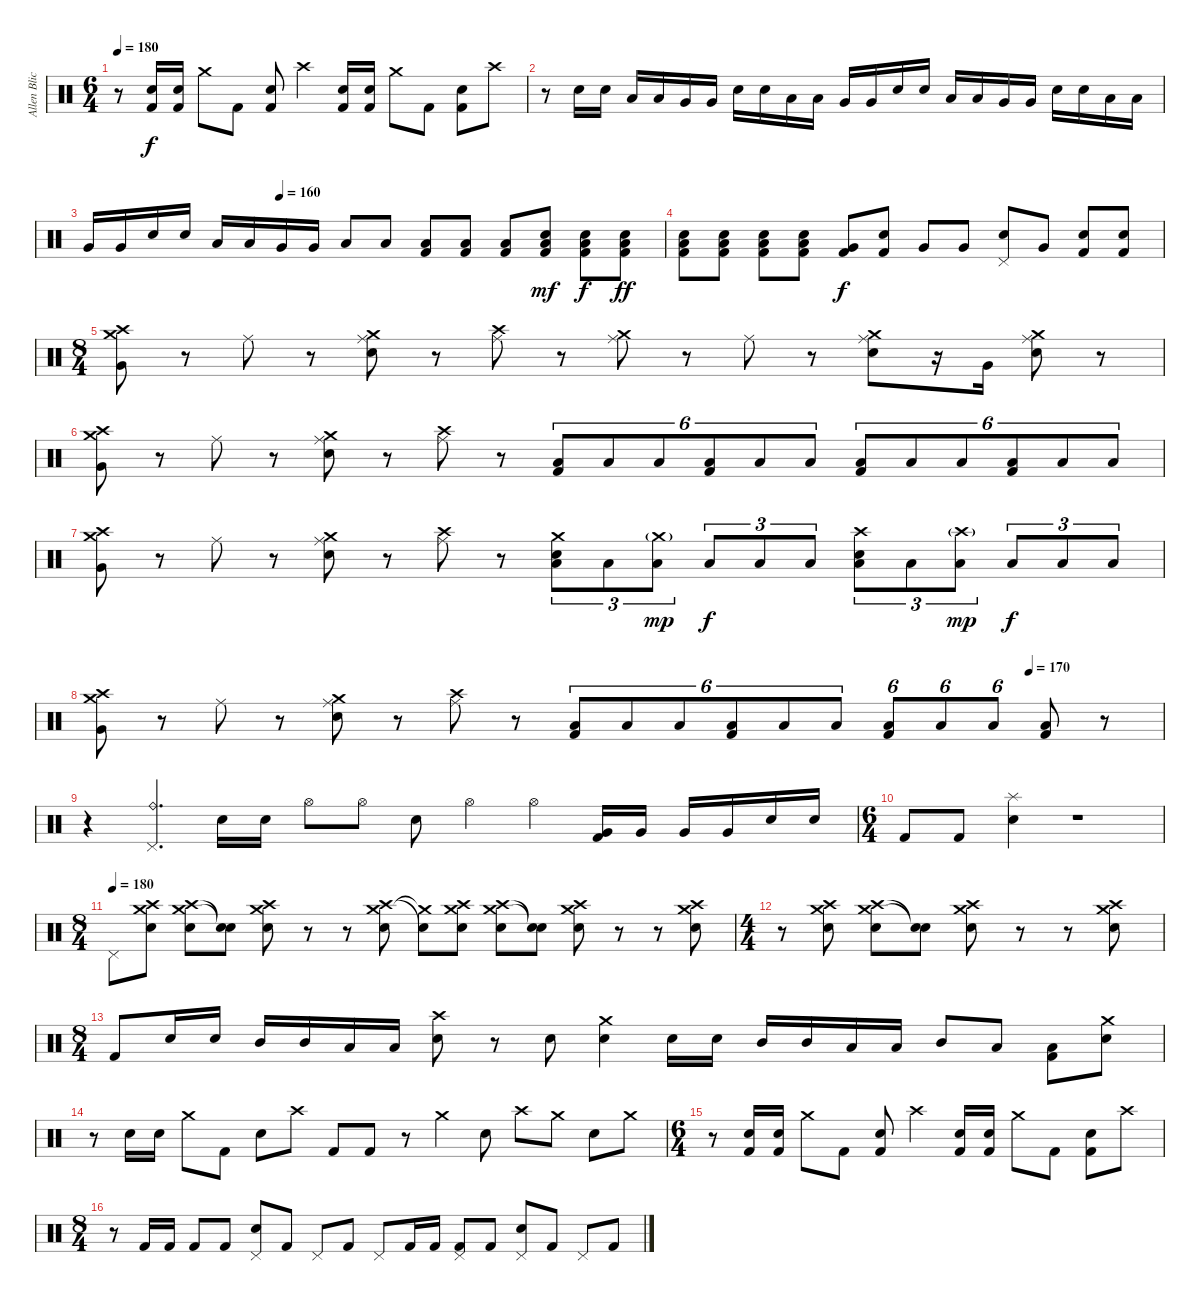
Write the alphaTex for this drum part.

\track ("Allen Blickle" "Allen Blic") {instrument percussion}
\staff {score}
\articulation defaults
\ts (6 4)
\tempo 180
\clef neutral
\ks c
r.8{dy f} ("Electric Snare (hit)" "Kick (hit) 2").16 ("Electric Snare (hit)" "Kick (hit) 2").16 "Crash medium (hit)".8 "Kick (hit) 2".8 ("Electric Snare (hit)" "Kick (hit) 2").8 "Crash high (hit)".4 ("Electric Snare (hit)" "Kick (hit) 2").16 ("Electric Snare (hit)" "Kick (hit) 2").16 "Crash medium (hit)".8 "Kick (hit) 2".8 ("Electric Snare (hit)" "Kick (hit) 2").8 "Crash high (hit)".8 |
r.8 "Electric Snare (hit)".16 "Electric Snare (hit)".16 "Low Tom (hit)".16 "Low Tom (hit)".16 "Very Low Tom (hit)".16 "Very Low Tom (hit)".16 "Electric Snare (hit)".16 "Electric Snare (hit)".16 "Low Tom (hit)".16 "Low Tom (hit)".16 "Very Low Tom (hit)".16 "Very Low Tom (hit)".16 "Electric Snare (hit)".16 "Electric Snare (hit)".16 "Low Tom (hit)".16 "Low Tom (hit)".16 "Very Low Tom (hit)".16 "Very Low Tom (hit)".16 "Electric Snare (hit)".16 "Electric Snare (hit)".16 "Low Tom (hit)".16 "Low Tom (hit)".16 |
\tempo (160 0.3333333333333333)
"Very Low Tom (hit)".16 "Very Low Tom (hit)".16 "Electric Snare (hit)".16 "Electric Snare (hit)".16 "Low Tom (hit)".16 "Low Tom (hit)".16 "Very Low Tom (hit)".16 "Very Low Tom (hit)".16 "Low Tom (hit)".8 "Low Tom (hit)".8 ("Low Tom (hit)" "Kick (hit) 2").8 ("Low Tom (hit)" "Kick (hit) 2").8 ("Low Tom (hit)" "Kick (hit) 2").8 ("Low Tom (hit)" "Electric Snare (hit)" "Kick (hit) 2").8{dy mf} ("Low Tom (hit)" "Electric Snare (hit)" "Kick (hit) 2").8{dy f} ("Low Tom (hit)" "Electric Snare (hit)" "Kick (hit) 2").8{dy ff} |
("Low Tom (hit)" "Electric Snare (hit)" "Kick (hit) 2").8 ("Low Tom (hit)" "Electric Snare (hit)" "Kick (hit) 2").8 ("Low Tom (hit)" "Electric Snare (hit)" "Kick (hit) 2").8 ("Low Tom (hit)" "Electric Snare (hit)" "Kick (hit) 2").8 ("Very Low Tom (hit)" "Kick (hit) 2").8{dy f} ("Electric Snare (hit)" "Kick (hit) 2").8 "Very Low Tom (hit)".8 "Very Low Tom (hit)".8 ("Electric Snare (hit)" "Pedal Hi-Hat (hit)").8 "Very Low Tom (hit)".8 ("Electric Snare (hit)" "Kick (hit) 2").8 ("Electric Snare (hit)" "Kick (hit) 2").8 |
\ts (8 4)
("Crash high (hit)" "Very Low Tom (hit)" "Crash medium (hit)").8 r.8 "Ride (middle)".8 r.8 ("Ride (middle)" "Crash medium (hit)" "Electric Snare (hit)").8 r.8 ("Ride (middle)" "Crash high (hit)").8 r.8 ("Ride (middle)" "Crash medium (hit)").8 r.8 "Ride (middle)".8 r.8 ("Ride (middle)" "Crash medium (hit)" "Electric Snare (hit)").8 r.16 "Very Low Tom (hit)".16 ("Ride (middle)" "Crash medium (hit)" "Electric Snare (hit)").8 r.8 |
("Crash high (hit)" "Very Low Tom (hit)" "Crash medium (hit)").8 r.8 "Ride (middle)".8 r.8 ("Ride (middle)" "Crash medium (hit)" "Electric Snare (hit)").8 r.8 ("Ride (middle)" "Crash high (hit)").8 r.8 ("Kick (hit) 2" "Low Floor Tom (hit)").8{tu (6 4)} "Low Floor Tom (hit)".8{tu (6 4)} "Low Floor Tom (hit)".8{tu (6 4)} ("Kick (hit) 2" "Low Floor Tom (hit)").8{tu (6 4)} "Low Floor Tom (hit)".8{tu (6 4)} "Low Floor Tom (hit)".8{tu (6 4)} ("Kick (hit) 2" "Low Floor Tom (hit)").8{tu (6 4)} "Low Floor Tom (hit)".8{tu (6 4)} "Low Floor Tom (hit)".8{tu (6 4)} ("Kick (hit) 2" "Low Floor Tom (hit)").8{tu (6 4)} "Low Floor Tom (hit)".8{tu (6 4)} "Low Floor Tom (hit)".8{tu (6 4)} |
("Crash high (hit)" "Very Low Tom (hit)" "Crash medium (hit)").8 r.8 "Ride (middle)".8 r.8 ("Ride (middle)" "Crash medium (hit)" "Electric Snare (hit)").8 r.8 ("Ride (middle)" "Crash high (hit)").8 r.8 ("Low Floor Tom (hit)" "Crash medium (hit)" "Electric Snare (hit)").8{tu (3 2)} "Low Floor Tom (hit)".8{tu (3 2)} ("Low Floor Tom (hit)" "Crash medium (hit)"{g}).8{tu (3 2) dy mp} "Low Floor Tom (hit)".8{tu (3 2) dy f} "Low Floor Tom (hit)".8{tu (3 2)} "Low Floor Tom (hit)".8{tu (3 2)} ("Low Floor Tom (hit)" "Crash high (hit)" "Electric Snare (hit)").8{tu (3 2)} "Low Floor Tom (hit)".8{tu (3 2)} ("Low Floor Tom (hit)" "Crash high (hit)"{g}).8{tu (3 2) dy mp} "Low Floor Tom (hit)".8{tu (3 2) dy f} "Low Floor Tom (hit)".8{tu (3 2)} "Low Floor Tom (hit)".8{tu (3 2)} |
\tempo (170 0.875)
("Crash high (hit)" "Very Low Tom (hit)" "Crash medium (hit)").8 r.8 "Ride (middle)".8 r.8 ("Ride (middle)" "Crash medium (hit)" "Electric Snare (hit)").8 r.8 ("Ride (middle)" "Crash high (hit)").8 r.8 ("Kick (hit) 2" "Low Floor Tom (hit)").8{tu (6 4)} "Low Floor Tom (hit)".8{tu (6 4)} "Low Floor Tom (hit)".8{tu (6 4)} ("Kick (hit) 2" "Low Floor Tom (hit)").8{tu (6 4)} "Low Floor Tom (hit)".8{tu (6 4)} "Low Floor Tom (hit)".8{tu (6 4)} ("Kick (hit) 2" "Low Floor Tom (hit)").8{tu (6 4)} "Low Floor Tom (hit)".8{tu (6 4)} "Low Floor Tom (hit)".8{tu (6 4)} ("Kick (hit) 2" "Low Floor Tom (hit)").8 r.8 |
r.4 ("Pedal Hi-Hat (hit)" "Ride (bell)").4{d} "Electric Snare (hit)".16 "Electric Snare (hit)".16 "Hi-Hat (open)".8 "Hi-Hat (open)".8 "Electric Snare (hit)".8 "Hi-Hat (open)".4 "Hi-Hat (open)".4 ("Very Low Tom (hit)" "Kick (hit) 2").16 "Very Low Tom (hit)".16 "Very Low Tom (hit)".16 "Very Low Tom (hit)".16 "Electric Snare (hit)".16 "Electric Snare (hit)".16 |
\ts (6 4)
"Kick (hit) 2".8 "Kick (hit) 2".8 ("Splash (hit)" "Electric Snare (hit)").4 r.1 |
\ts (8 4)
\tempo (180)
"Pedal Hi-Hat (hit)".8 ("Crash medium (hit)" "Crash high (hit)" "Electric Snare (hit)").8 ("Crash medium (hit)" "Crash high (hit)" "Electric Snare (hit)").8 ("Snare (hit)"{t} "Snare (hit)"{t}).8 ("Crash medium (hit)" "Crash high (hit)" "Electric Snare (hit)").8 r.8 r.8 ("Crash medium (hit)" "Crash high (hit)" "Electric Snare (hit)").8 ("Crash medium (hit)"{t} "Snare (hit)"{t}).8 ("Crash medium (hit)" "Crash high (hit)" "Electric Snare (hit)").8 ("Crash medium (hit)" "Crash high (hit)" "Electric Snare (hit)").8 ("Snare (hit)"{t} "Snare (hit)"{t}).8 ("Crash medium (hit)" "Crash high (hit)" "Electric Snare (hit)").8 r.8 r.8 ("Crash medium (hit)" "Crash high (hit)" "Electric Snare (hit)").8 |
\ts (4 4)
r.8 ("Crash medium (hit)" "Crash high (hit)" "Electric Snare (hit)").8 ("Crash medium (hit)" "Crash high (hit)" "Electric Snare (hit)").8 ("Snare (hit)"{t} "Snare (hit)"{t}).8 ("Crash medium (hit)" "Crash high (hit)" "Electric Snare (hit)").8 r.8 r.8 ("Crash medium (hit)" "Crash high (hit)" "Electric Snare (hit)").8 |
\ts (8 4)
"Kick (hit) 2".8 "Electric Snare (hit)".16 "Electric Snare (hit)".16 "Mid Tom (hit)".16 "Mid Tom (hit)".16 "Low Tom (hit)".16 "Low Tom (hit)".16 ("Crash high (hit)" "Electric Snare (hit)").8 r.8 "Electric Snare (hit)".8 ("Crash medium (hit)" "Electric Snare (hit)").4 "Electric Snare (hit)".16 "Electric Snare (hit)".16 "Mid Tom (hit)".16 "Mid Tom (hit)".16 "Low Tom (hit)".16 "Low Tom (hit)".16 "Mid Tom (hit)".8 "Low Tom (hit)".8 ("Low Floor Tom (hit)" "Kick (hit) 2").8 ("Crash medium (hit)" "Electric Snare (hit)").8 |
r.8 "Electric Snare (hit)".16 "Electric Snare (hit)".16 "Crash medium (hit)".8 "Kick (hit) 2".8 "Electric Snare (hit)".8 "Crash high (hit)".8 "Kick (hit) 2".8 "Kick (hit) 2".8 r.8 "Crash medium (hit)".4 "Electric Snare (hit)".8 "Crash high (hit)".8 "Crash medium (hit)".8 "Electric Snare (hit)".8 "Crash medium (hit)".8 |
\ts (6 4)
r.8 ("Electric Snare (hit)" "Kick (hit) 2").16 ("Electric Snare (hit)" "Kick (hit) 2").16 "Crash medium (hit)".8 "Kick (hit) 2".8 ("Electric Snare (hit)" "Kick (hit) 2").8 "Crash high (hit)".4 ("Electric Snare (hit)" "Kick (hit) 2").16 ("Electric Snare (hit)" "Kick (hit) 2").16 "Crash medium (hit)".8 "Kick (hit) 2".8 ("Electric Snare (hit)" "Kick (hit) 2").8 "Crash high (hit)".8 |
\ts (8 4)
r.8 "Kick (hit) 2".16 "Kick (hit) 2".16 "Kick (hit) 2".8 "Kick (hit) 2".8 ("Pedal Hi-Hat (hit)" "Electric Snare (hit)").8 "Kick (hit) 2".8 "Pedal Hi-Hat (hit)".8 "Kick (hit) 2".8 "Pedal Hi-Hat (hit)".8 "Kick (hit) 2".16 "Kick (hit) 2".16 ("Pedal Hi-Hat (hit)" "Kick (hit) 2").8 "Kick (hit) 2".8 ("Pedal Hi-Hat (hit)" "Electric Snare (hit)").8 "Kick (hit) 2".8 "Pedal Hi-Hat (hit)".8 "Kick (hit) 2".8
